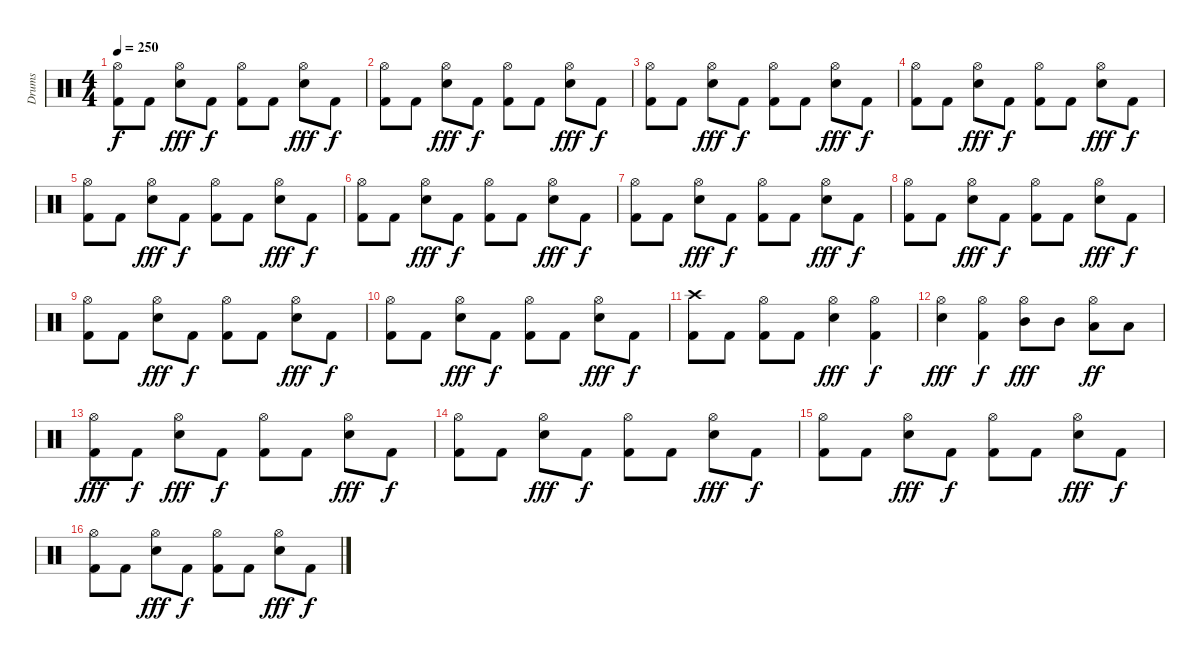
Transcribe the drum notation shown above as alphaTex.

\track ("Drums" "Drums") {instrument percussion}
\staff {score}
\articulation defaults
\ts (4 4)
\tempo 250
\clef neutral
\ks c
("Kick (hit) 2" "Hi-Hat (open)").8{dy f} "Kick (hit) 2".8 ("Hi-Hat (open)" "Snare (hit) 2").8{dy fff} "Kick (hit) 2".8{dy f} ("Hi-Hat (open)" "Kick (hit) 2").8 "Kick (hit) 2".8 ("Hi-Hat (open)" "Snare (hit) 2").8{dy fff} "Kick (hit) 2".8{dy f} |
("Kick (hit) 2" "Hi-Hat (open)").8 "Kick (hit) 2".8 ("Hi-Hat (open)" "Snare (hit) 2").8{dy fff} "Kick (hit) 2".8{dy f} ("Hi-Hat (open)" "Kick (hit) 2").8 "Kick (hit) 2".8 ("Hi-Hat (open)" "Snare (hit) 2").8{dy fff} "Kick (hit) 2".8{dy f} |
("Kick (hit) 2" "Hi-Hat (open)").8 "Kick (hit) 2".8 ("Hi-Hat (open)" "Snare (hit) 2").8{dy fff} "Kick (hit) 2".8{dy f} ("Hi-Hat (open)" "Kick (hit) 2").8 "Kick (hit) 2".8 ("Hi-Hat (open)" "Snare (hit) 2").8{dy fff} "Kick (hit) 2".8{dy f} |
("Kick (hit) 2" "Hi-Hat (open)").8 "Kick (hit) 2".8 ("Hi-Hat (open)" "Snare (hit) 2").8{dy fff} "Kick (hit) 2".8{dy f} ("Hi-Hat (open)" "Kick (hit) 2").8 "Kick (hit) 2".8 ("Hi-Hat (open)" "Snare (hit) 2").8{dy fff} "Kick (hit) 2".8{dy f} |
("Kick (hit) 2" "Hi-Hat (open)").8 "Kick (hit) 2".8 ("Hi-Hat (open)" "Snare (hit) 2").8{dy fff} "Kick (hit) 2".8{dy f} ("Hi-Hat (open)" "Kick (hit) 2").8 "Kick (hit) 2".8 ("Hi-Hat (open)" "Snare (hit) 2").8{dy fff} "Kick (hit) 2".8{dy f} |
("Kick (hit) 2" "Hi-Hat (open)").8 "Kick (hit) 2".8 ("Hi-Hat (open)" "Snare (hit) 2").8{dy fff} "Kick (hit) 2".8{dy f} ("Hi-Hat (open)" "Kick (hit) 2").8 "Kick (hit) 2".8 ("Hi-Hat (open)" "Snare (hit) 2").8{dy fff} "Kick (hit) 2".8{dy f} |
("Kick (hit) 2" "Hi-Hat (open)").8 "Kick (hit) 2".8 ("Hi-Hat (open)" "Snare (hit) 2").8{dy fff} "Kick (hit) 2".8{dy f} ("Hi-Hat (open)" "Kick (hit) 2").8 "Kick (hit) 2".8 ("Hi-Hat (open)" "Snare (hit) 2").8{dy fff} "Kick (hit) 2".8{dy f} |
("Kick (hit) 2" "Hi-Hat (open)").8 "Kick (hit) 2".8 ("Hi-Hat (open)" "Snare (hit) 2").8{dy fff} "Kick (hit) 2".8{dy f} ("Hi-Hat (open)" "Kick (hit) 2").8 "Kick (hit) 2".8 ("Hi-Hat (open)" "Snare (hit) 2").8{dy fff} "Kick (hit) 2".8{dy f} |
("Kick (hit) 2" "Hi-Hat (open)").8 "Kick (hit) 2".8 ("Hi-Hat (open)" "Snare (hit) 2").8{dy fff} "Kick (hit) 2".8{dy f} ("Hi-Hat (open)" "Kick (hit) 2").8 "Kick (hit) 2".8 ("Hi-Hat (open)" "Snare (hit) 2").8{dy fff} "Kick (hit) 2".8{dy f} |
("Kick (hit) 2" "Hi-Hat (open)").8 "Kick (hit) 2".8 ("Hi-Hat (open)" "Snare (hit) 2").8{dy fff} "Kick (hit) 2".8{dy f} ("Hi-Hat (open)" "Kick (hit) 2").8 "Kick (hit) 2".8 ("Hi-Hat (open)" "Snare (hit) 2").8{dy fff} "Kick (hit) 2".8{dy f} |
("Kick (hit) 2" "Crash high (hit)").8 "Kick (hit) 2".8 ("Kick (hit) 2" "Hi-Hat (open)").8 "Kick (hit) 2".8 ("Snare (hit) 2" "Hi-Hat (open)").4{dy fff} ("Kick (hit) 2" "Hi-Hat (open)").4{dy f} |
("Hi-Hat (open)" "Snare (hit) 2").4{dy fff} ("Hi-Hat (open)" "Kick (hit) 2").4{dy f} ("Hi-Hat (open)" "Mid Tom (hit)").8{dy fff} "Mid Tom (hit)".8 ("Hi-Hat (open)" "Low Tom (hit)").8{dy ff} "Low Tom (hit)".8 |
("Hi-Hat (open)" "Kick (hit) 2").8{dy fff} "Kick (hit) 2".8{dy f} ("Hi-Hat (open)" "Snare (hit) 2").8{dy fff} "Kick (hit) 2".8{dy f} ("Hi-Hat (open)" "Kick (hit) 2").8 "Kick (hit) 2".8 ("Hi-Hat (open)" "Snare (hit) 2").8{dy fff} "Kick (hit) 2".8{dy f} |
("Kick (hit) 2" "Hi-Hat (open)").8 "Kick (hit) 2".8 ("Hi-Hat (open)" "Snare (hit) 2").8{dy fff} "Kick (hit) 2".8{dy f} ("Hi-Hat (open)" "Kick (hit) 2").8 "Kick (hit) 2".8 ("Hi-Hat (open)" "Snare (hit) 2").8{dy fff} "Kick (hit) 2".8{dy f} |
("Kick (hit) 2" "Hi-Hat (open)").8 "Kick (hit) 2".8 ("Hi-Hat (open)" "Snare (hit) 2").8{dy fff} "Kick (hit) 2".8{dy f} ("Hi-Hat (open)" "Kick (hit) 2").8 "Kick (hit) 2".8 ("Hi-Hat (open)" "Snare (hit) 2").8{dy fff} "Kick (hit) 2".8{dy f} |
("Kick (hit) 2" "Hi-Hat (open)").8 "Kick (hit) 2".8 ("Hi-Hat (open)" "Snare (hit) 2").8{dy fff} "Kick (hit) 2".8{dy f} ("Hi-Hat (open)" "Kick (hit) 2").8 "Kick (hit) 2".8 ("Hi-Hat (open)" "Snare (hit) 2").8{dy fff} "Kick (hit) 2".8{dy f}
